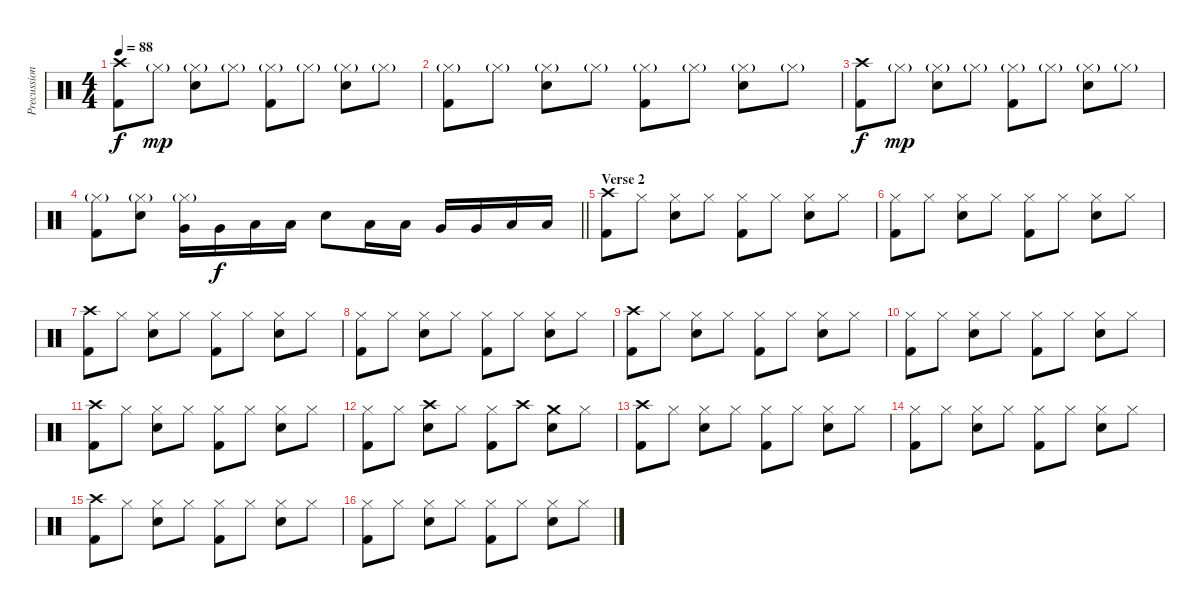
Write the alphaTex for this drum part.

\track ("Precussion" "Precussion") {instrument percussion}
\staff {score}
\articulation defaults
\ts (4 4)
\tempo 88
\clef neutral
\ks c
("Crash high (hit)" "Kick (hit) 2").8{dy f} "Hi-Hat (closed)"{g}.8{dy mp} ("Hi-Hat (closed)"{g} "Electric Snare (hit)").8 "Hi-Hat (closed)"{g}.8 ("Hi-Hat (closed)"{g} "Kick (hit) 2").8 "Hi-Hat (closed)"{g}.8 ("Hi-Hat (closed)"{g} "Electric Snare (hit)").8 "Hi-Hat (closed)"{g}.8 |
("Hi-Hat (closed)"{g} "Kick (hit) 2").8 "Hi-Hat (closed)"{g}.8 ("Hi-Hat (closed)"{g} "Electric Snare (hit)").8 "Hi-Hat (closed)"{g}.8 ("Hi-Hat (closed)"{g} "Kick (hit) 2").8 "Hi-Hat (closed)"{g}.8 ("Hi-Hat (closed)"{g} "Electric Snare (hit)").8 "Hi-Hat (closed)"{g}.8 |
("Crash high (hit)" "Kick (hit) 2").8{dy f} "Hi-Hat (closed)"{g}.8{dy mp} ("Hi-Hat (closed)"{g} "Electric Snare (hit)").8 "Hi-Hat (closed)"{g}.8 ("Hi-Hat (closed)"{g} "Kick (hit) 2").8 "Hi-Hat (closed)"{g}.8 ("Hi-Hat (closed)"{g} "Electric Snare (hit)").8 "Hi-Hat (closed)"{g}.8 |
\barLineRight lightlight
("Hi-Hat (closed)"{g} "Kick (hit) 2").8 ("Hi-Hat (closed)"{g} "Electric Snare (hit)").8 ("Hi-Hat (closed)"{g} "Very Low Tom (hit)").16 "Very Low Tom (hit)".16{dy f} "Low Floor Tom (hit)".16 "Low Floor Tom (hit)".16 "Electric Snare (hit)".8 "Low Floor Tom (hit)".16 "Low Floor Tom (hit)".16 "Very Low Tom (hit)".16 "Very Low Tom (hit)".16 "Low Floor Tom (hit)".16 "Low Floor Tom (hit)".16 |
\section ("" "Verse 2")
("Crash high (hit)" "Kick (hit) 2").8 "Hi-Hat (closed)".8 ("Hi-Hat (closed)" "Electric Snare (hit)").8 "Hi-Hat (closed)".8 ("Hi-Hat (closed)" "Kick (hit) 2").8 "Hi-Hat (closed)".8 ("Hi-Hat (closed)" "Electric Snare (hit)").8 "Hi-Hat (closed)".8 |
("Hi-Hat (closed)" "Kick (hit) 2").8 "Hi-Hat (closed)".8 ("Hi-Hat (closed)" "Electric Snare (hit)").8 "Hi-Hat (closed)".8 ("Hi-Hat (closed)" "Kick (hit) 2").8 "Hi-Hat (closed)".8 ("Hi-Hat (closed)" "Electric Snare (hit)").8 "Hi-Hat (closed)".8 |
("Crash high (hit)" "Kick (hit) 2").8 "Hi-Hat (closed)".8 ("Hi-Hat (closed)" "Electric Snare (hit)").8 "Hi-Hat (closed)".8 ("Hi-Hat (closed)" "Kick (hit) 2").8 "Hi-Hat (closed)".8 ("Hi-Hat (closed)" "Electric Snare (hit)").8 "Hi-Hat (closed)".8 |
("Hi-Hat (closed)" "Kick (hit) 2").8 "Hi-Hat (closed)".8 ("Hi-Hat (closed)" "Electric Snare (hit)").8 "Hi-Hat (closed)".8 ("Hi-Hat (closed)" "Kick (hit) 2").8 "Hi-Hat (closed)".8 ("Hi-Hat (closed)" "Electric Snare (hit)").8 "Hi-Hat (closed)".8 |
("Crash high (hit)" "Kick (hit) 2").8 "Hi-Hat (closed)".8 ("Hi-Hat (closed)" "Electric Snare (hit)").8 "Hi-Hat (closed)".8 ("Hi-Hat (closed)" "Kick (hit) 2").8 "Hi-Hat (closed)".8 ("Hi-Hat (closed)" "Electric Snare (hit)").8 "Hi-Hat (closed)".8 |
("Hi-Hat (closed)" "Kick (hit) 2").8 "Hi-Hat (closed)".8 ("Hi-Hat (closed)" "Electric Snare (hit)").8 "Hi-Hat (closed)".8 ("Hi-Hat (closed)" "Kick (hit) 2").8 "Hi-Hat (closed)".8 ("Hi-Hat (closed)" "Electric Snare (hit)").8 "Hi-Hat (closed)".8 |
("Crash high (hit)" "Kick (hit) 2").8 "Hi-Hat (closed)".8 ("Hi-Hat (closed)" "Electric Snare (hit)").8 "Hi-Hat (closed)".8 ("Hi-Hat (closed)" "Kick (hit) 2").8 "Hi-Hat (closed)".8 ("Hi-Hat (closed)" "Electric Snare (hit)").8 "Hi-Hat (closed)".8 |
("Hi-Hat (closed)" "Kick (hit) 2").8 "Hi-Hat (closed)".8 ("Crash high (hit)" "Electric Snare (hit)").8 "Hi-Hat (closed)".8 ("Hi-Hat (closed)" "Kick (hit) 2").8 "Crash high (hit)".8 ("Crash medium (hit)" "Electric Snare (hit)").8 "Hi-Hat (closed)".8 |
("Crash high (hit)" "Kick (hit) 2").8 "Hi-Hat (closed)".8 ("Hi-Hat (closed)" "Electric Snare (hit)").8 "Hi-Hat (closed)".8 ("Hi-Hat (closed)" "Kick (hit) 2").8 "Hi-Hat (closed)".8 ("Hi-Hat (closed)" "Electric Snare (hit)").8 "Hi-Hat (closed)".8 |
("Hi-Hat (closed)" "Kick (hit) 2").8 "Hi-Hat (closed)".8 ("Hi-Hat (closed)" "Electric Snare (hit)").8 "Hi-Hat (closed)".8 ("Hi-Hat (closed)" "Kick (hit) 2").8 "Hi-Hat (closed)".8 ("Hi-Hat (closed)" "Electric Snare (hit)").8 "Hi-Hat (closed)".8 |
("Crash high (hit)" "Kick (hit) 2").8 "Hi-Hat (closed)".8 ("Hi-Hat (closed)" "Electric Snare (hit)").8 "Hi-Hat (closed)".8 ("Hi-Hat (closed)" "Kick (hit) 2").8 "Hi-Hat (closed)".8 ("Hi-Hat (closed)" "Electric Snare (hit)").8 "Hi-Hat (closed)".8 |
("Hi-Hat (closed)" "Kick (hit) 2").8 "Hi-Hat (closed)".8 ("Hi-Hat (closed)" "Electric Snare (hit)").8 "Hi-Hat (closed)".8 ("Hi-Hat (closed)" "Kick (hit) 2").8 "Hi-Hat (closed)".8 ("Hi-Hat (closed)" "Electric Snare (hit)").8 "Hi-Hat (closed)".8
